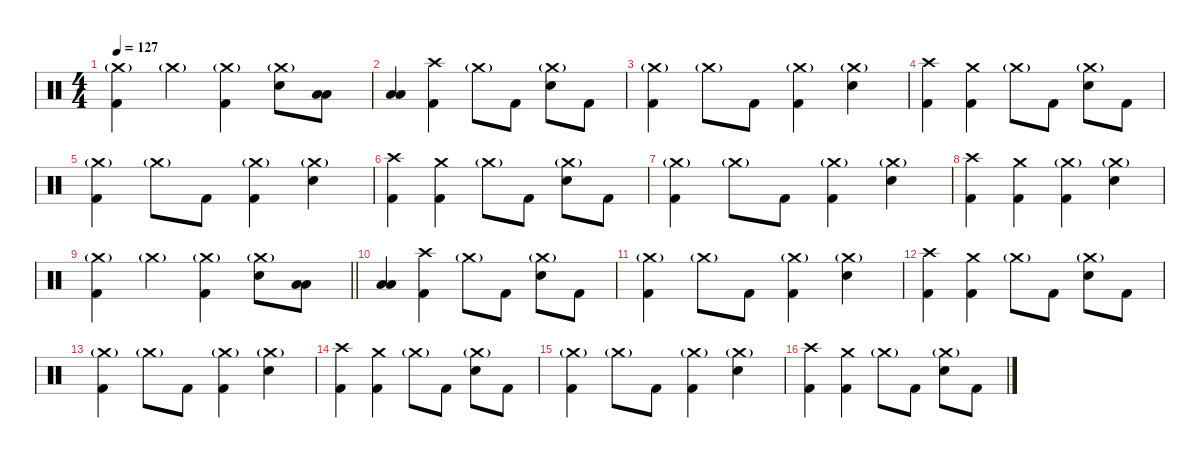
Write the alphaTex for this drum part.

\defaultSystemsLayout 4
\hideDynamics
\bracketExtendMode nobrackets
\singleTrackTrackNamePolicy hidden
\multiTrackTrackNamePolicy hidden
\otherSystemsTrackNameOrientation horizontal
\track ("Gene Hoglan" "drm.") {instrument percussion}
\staff {score}
\articulation defaults
\ts (4 4)
\tempo 127
\clef neutral
\ks c
("Crash medium (hit)"{g} "Kick (hit) 2").4{dy f beam Down} "Crash medium (hit)"{g}.4{dy mf beam Down} ("Crash medium (hit)"{g} "Kick (hit) 2").4{dy f beam Down} ("Crash medium (hit)"{g} "Snare (hit) 2").8{beam Down} ("Low Tom (hit)" "Low Tom (hit)").8{dy fff beam Down} |
("Low Tom (hit)" "Low Tom (hit)").4{dy f beam Up} ("Crash high (hit)" "Kick (hit) 2").4{beam Down} "Crash medium (hit)"{g}.8{dy mf beam Down} "Kick (hit) 2".8{dy f beam Down} ("Crash medium (hit)"{g} "Snare (hit) 2").8{beam Down} "Kick (hit) 2".8{beam Down} |
("Crash medium (hit)"{g} "Kick (hit) 2").4{beam Down} "Crash medium (hit)"{g}.8{dy mf beam Down} "Kick (hit) 2".8{dy f beam Down} ("Crash medium (hit)"{g} "Kick (hit) 2").4{beam Down} ("Crash medium (hit)"{g} "Snare (hit) 2").4{beam Down} |
("Crash high (hit)" "Kick (hit) 2").4{beam Down} ("Crash medium (hit)" "Kick (hit) 2").4{beam Down} "Crash medium (hit)"{g}.8{dy mf beam Down} "Kick (hit) 2".8{dy f beam Down} ("Crash medium (hit)"{g} "Snare (hit) 2").8{beam Down} "Kick (hit) 2".8{beam Down} |
("Crash medium (hit)"{g} "Kick (hit) 2").4{beam Down} "Crash medium (hit)"{g}.8{dy mf beam Down} "Kick (hit) 2".8{dy f beam Down} ("Crash medium (hit)"{g} "Kick (hit) 2").4{beam Down} ("Crash medium (hit)"{g} "Snare (hit) 2").4{beam Down} |
("Crash high (hit)" "Kick (hit) 2").4{beam Down} ("Crash medium (hit)" "Kick (hit) 2").4{beam Down} "Crash medium (hit)"{g}.8{dy mf beam Down} "Kick (hit) 2".8{dy f beam Down} ("Crash medium (hit)"{g} "Snare (hit) 2").8{beam Down} "Kick (hit) 2".8{beam Down} |
("Crash medium (hit)"{g} "Kick (hit) 2").4{beam Down} "Crash medium (hit)"{g}.8{dy mf beam Down} "Kick (hit) 2".8{dy f beam Down} ("Crash medium (hit)"{g} "Kick (hit) 2").4{beam Down} ("Crash medium (hit)"{g} "Snare (hit) 2").4{beam Down} |
("Crash high (hit)" "Kick (hit) 2").4{beam Down} ("Crash medium (hit)" "Kick (hit) 2").4{beam Down} ("Crash medium (hit)"{g} "Kick (hit) 2").4{beam Down} ("Crash medium (hit)"{g} "Snare (hit) 2").4{beam Down} |
\barLineRight lightlight
("Crash medium (hit)"{g} "Kick (hit) 2").4{beam Down} "Crash medium (hit)"{g}.4{dy mf beam Down} ("Crash medium (hit)"{g} "Kick (hit) 2").4{dy f beam Down} ("Crash medium (hit)"{g} "Snare (hit) 2").8{beam Down} ("Low Tom (hit)" "Low Tom (hit)").8{dy fff beam Down} |
("Low Tom (hit)" "Low Tom (hit)").4{dy f beam Up} ("Crash high (hit)" "Kick (hit) 2").4{beam Down} "Crash medium (hit)"{g}.8{dy mf beam Down} "Kick (hit) 2".8{dy f beam Down} ("Crash medium (hit)"{g} "Snare (hit) 2").8{beam Down} "Kick (hit) 2".8{beam Down} |
("Crash medium (hit)"{g} "Kick (hit) 2").4{beam Down} "Crash medium (hit)"{g}.8{dy mf beam Down} "Kick (hit) 2".8{dy f beam Down} ("Crash medium (hit)"{g} "Kick (hit) 2").4{beam Down} ("Crash medium (hit)"{g} "Snare (hit) 2").4{beam Down} |
("Crash high (hit)" "Kick (hit) 2").4{beam Down} ("Crash medium (hit)" "Kick (hit) 2").4{beam Down} "Crash medium (hit)"{g}.8{dy mf beam Down} "Kick (hit) 2".8{dy f beam Down} ("Crash medium (hit)"{g} "Snare (hit) 2").8{beam Down} "Kick (hit) 2".8{beam Down} |
("Crash medium (hit)"{g} "Kick (hit) 2").4{beam Down} "Crash medium (hit)"{g}.8{dy mf beam Down} "Kick (hit) 2".8{dy f beam Down} ("Crash medium (hit)"{g} "Kick (hit) 2").4{beam Down} ("Crash medium (hit)"{g} "Snare (hit) 2").4{beam Down} |
("Crash high (hit)" "Kick (hit) 2").4{beam Down} ("Crash medium (hit)" "Kick (hit) 2").4{beam Down} "Crash medium (hit)"{g}.8{dy mf beam Down} "Kick (hit) 2".8{dy f beam Down} ("Crash medium (hit)"{g} "Snare (hit) 2").8{beam Down} "Kick (hit) 2".8{beam Down} |
("Crash medium (hit)"{g} "Kick (hit) 2").4{beam Down} "Crash medium (hit)"{g}.8{dy mf beam Down} "Kick (hit) 2".8{dy f beam Down} ("Crash medium (hit)"{g} "Kick (hit) 2").4{beam Down} ("Crash medium (hit)"{g} "Snare (hit) 2").4{beam Down} |
("Crash high (hit)" "Kick (hit) 2").4{beam Down} ("Crash medium (hit)" "Kick (hit) 2").4{beam Down} "Crash medium (hit)"{g}.8{dy mf beam Down} "Kick (hit) 2".8{dy f beam Down} ("Crash medium (hit)"{g} "Snare (hit) 2").8{beam Down} "Kick (hit) 2".8{beam Down}
